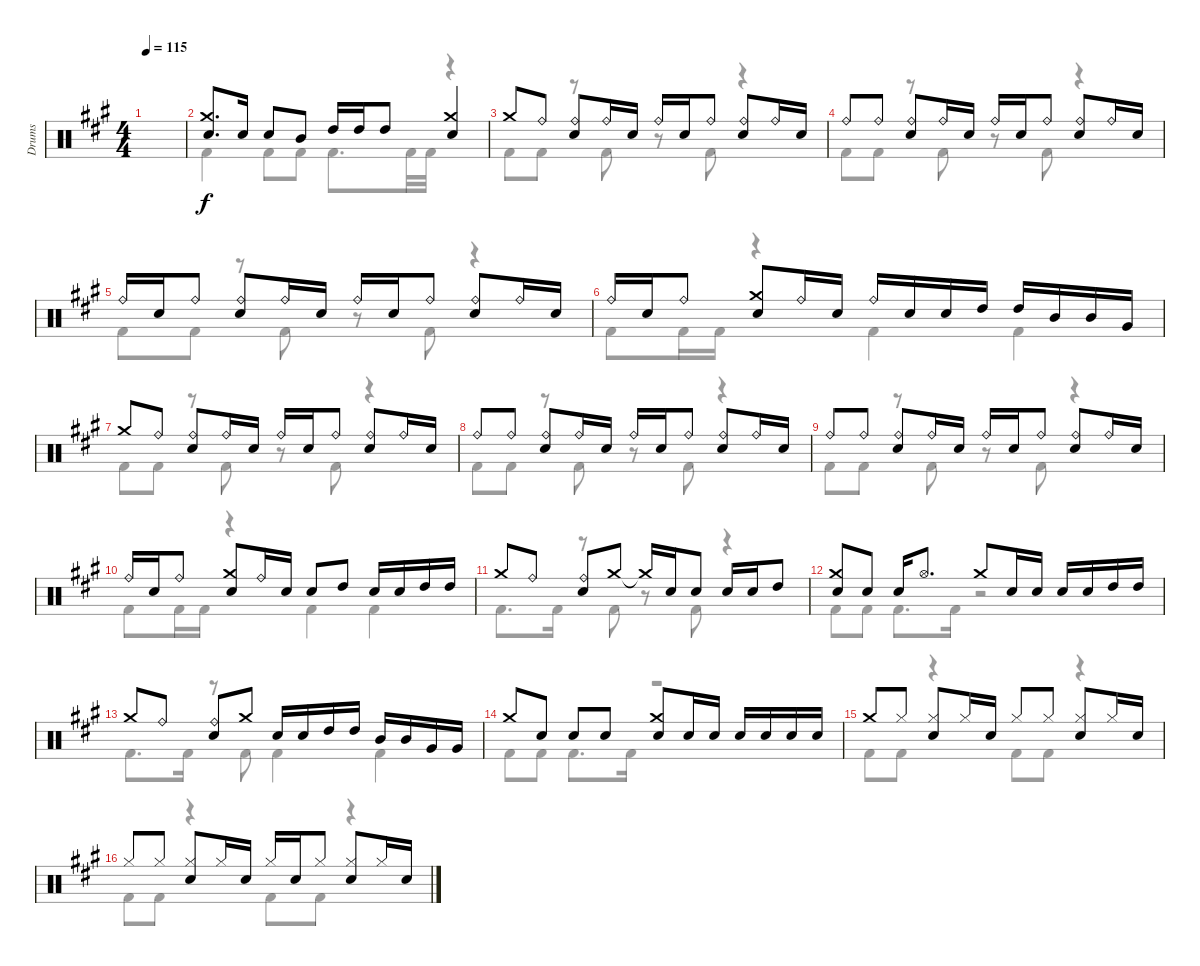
\track ("Drums" "Drums") {instrument percussion}
\staff {score}
\articulation defaults
\voice
\ts (4 4)
\tempo 115
\clef neutral
\ks a
|
("Electric Snare (hit)" "Crash medium (hit)").8{d} "Electric Snare (hit)".16 "Electric Snare (hit)".8 "Mid Tom (hit)".8 "High Tom (hit)".16 "High Tom (hit)".16 "High Tom (hit)".8 ("Crash medium (hit)" "Electric Snare (hit)").4 |
"Crash medium (hit)".8 "Ride (bell)".8 ("Ride (bell)" "Electric Snare (hit)").8 "Ride (bell)".16 "Electric Snare (hit)".16 "Ride (bell)".16 "Electric Snare (hit)".16 "Ride (bell)".8 ("Ride (bell)" "Electric Snare (hit)").8 "Ride (bell)".16 "Electric Snare (hit)".16 |
"Ride (bell)".8 "Ride (bell)".8 ("Ride (bell)" "Electric Snare (hit)").8 "Ride (bell)".16 "Electric Snare (hit)".16 "Ride (bell)".16 "Electric Snare (hit)".16 "Ride (bell)".8 ("Ride (bell)" "Electric Snare (hit)").8 "Ride (bell)".16 "Electric Snare (hit)".16 |
"Ride (bell)".16 "Electric Snare (hit)".16 "Ride (bell)".8 ("Ride (bell)" "Electric Snare (hit)").8 "Ride (bell)".16 "Electric Snare (hit)".16 "Ride (bell)".16 "Electric Snare (hit)".16 "Ride (bell)".8 ("Ride (bell)" "Electric Snare (hit)").8 "Ride (bell)".16 "Electric Snare (hit)".16 |
"Ride (bell)".16 "Electric Snare (hit)".16 "Ride (bell)".8 ("Crash medium (hit)" "Electric Snare (hit)").8 "Ride (bell)".16 "Electric Snare (hit)".16 "Ride (bell)".16 "Electric Snare (hit)".16 "Electric Snare (hit)".16 "High Tom (hit)".16 "High Tom (hit)".16 "Mid Tom (hit)".16 "Mid Tom (hit)".16 "Very Low Tom (hit)".16 |
"Crash medium (hit)".8 "Ride (bell)".8 ("Ride (bell)" "Electric Snare (hit)").8 "Ride (bell)".16 "Electric Snare (hit)".16 "Ride (bell)".16 "Electric Snare (hit)".16 "Ride (bell)".8 ("Ride (bell)" "Electric Snare (hit)").8 "Ride (bell)".16 "Electric Snare (hit)".16 |
"Ride (bell)".8 "Ride (bell)".8 ("Ride (bell)" "Electric Snare (hit)").8 "Ride (bell)".16 "Electric Snare (hit)".16 "Ride (bell)".16 "Electric Snare (hit)".16 "Ride (bell)".8 ("Ride (bell)" "Electric Snare (hit)").8 "Ride (bell)".16 "Electric Snare (hit)".16 |
"Ride (bell)".8 "Ride (bell)".8 ("Ride (bell)" "Electric Snare (hit)").8 "Ride (bell)".16 "Electric Snare (hit)".16 "Ride (bell)".16 "Electric Snare (hit)".16 "Ride (bell)".8 ("Ride (bell)" "Electric Snare (hit)").8 "Ride (bell)".16 "Electric Snare (hit)".16 |
"Ride (bell)".16 "Electric Snare (hit)".16 "Ride (bell)".8 ("Crash medium (hit)" "Electric Snare (hit)").8 "Ride (bell)".16 "Electric Snare (hit)".16 "Electric Snare (hit)".8 "High Tom (hit)".8 "Electric Snare (hit)".16 "Electric Snare (hit)".16 "High Tom (hit)".16 "High Tom (hit)".16 |
"Crash medium (hit)".8 "Ride (bell)".8 ("Ride (bell)" "Electric Snare (hit)").8 "Crash medium (hit)".8 "Crash medium (hit)"{t}.16 "Electric Snare (hit)".16 "Electric Snare (hit)".8 "Electric Snare (hit)".16 "Electric Snare (hit)".16 "High Tom (hit)".8 |
("Crash medium (hit)" "Electric Snare (hit)").8 "Electric Snare (hit)".8 "Electric Snare (hit)".16 "Hi-Hat (open)".8{d} "Crash medium (hit)".8 "Electric Snare (hit)".16 "Electric Snare (hit)".16 "Electric Snare (hit)".16 "Electric Snare (hit)".16 "High Tom (hit)".16 "High Tom (hit)".16 |
"Crash medium (hit)".8 "Ride (bell)".8 ("Ride (bell)" "Electric Snare (hit)").8 "Crash medium (hit)".8 "Electric Snare (hit)".16 "Electric Snare (hit)".16 "High Tom (hit)".16 "High Tom (hit)".16 "Mid Tom (hit)".16 "Mid Tom (hit)".16 "Very Low Tom (hit)".16 "Very Low Tom (hit)".16 |
"Crash medium (hit)".8 "Electric Snare (hit)".8 "Electric Snare (hit)".8 "Electric Snare (hit)".8 ("Electric Snare (hit)" "Crash medium (hit)").8 "Electric Snare (hit)".16 "Electric Snare (hit)".16 "Electric Snare (hit)".16 "Electric Snare (hit)".16 "Electric Snare (hit)".16 "Electric Snare (hit)".16 |
"Crash medium (hit)".8{beam Up} "Hi-Hat (closed)".8{beam Up} ("Hi-Hat (closed)" "Electric Snare (hit)").8{beam Up} "Hi-Hat (closed)".16{beam Up} "Electric Snare (hit)".16{beam Up} "Hi-Hat (closed)".8{beam Up} "Hi-Hat (closed)".8{beam Up} ("Hi-Hat (closed)" "Electric Snare (hit)").8{beam Up} "Hi-Hat (closed)".16{beam Up} "Electric Snare (hit)".16{beam Up} |
"Hi-Hat (closed)".8{beam Up} "Hi-Hat (closed)".8{beam Up} ("Hi-Hat (closed)" "Electric Snare (hit)").8{beam Up} "Hi-Hat (closed)".16{beam Up} "Electric Snare (hit)".16{beam Up} "Hi-Hat (closed)".16{beam Up} "Electric Snare (hit)".16{beam Up} "Hi-Hat (closed)".8{beam Up} ("Hi-Hat (closed)" "Electric Snare (hit)").8{beam Up} "Hi-Hat (closed)".16{beam Up} "Electric Snare (hit)".16{beam Up}
\voice
\clef neutral
\ottava regular
\simile none
\ks a
|
"Kick (hit) 2".4 "Kick (hit) 2".8 "Kick (hit) 2".8 "Kick (hit) 2".8{d} "Kick (hit) 2".32 "Kick (hit) 2".32 r.4 |
"Kick (hit) 2".8 "Kick (hit) 2".8 r.8 "Kick (hit) 2".8 r.8 "Kick (hit) 2".8 r.4 |
"Kick (hit) 2".8 "Kick (hit) 2".8 r.8 "Kick (hit) 2".8 r.8 "Kick (hit) 2".8 r.4 |
"Kick (hit) 2".8 "Kick (hit) 2".8 r.8 "Kick (hit) 2".8 r.8 "Kick (hit) 2".8 r.4 |
"Kick (hit) 2".8 "Kick (hit) 2".16 "Kick (hit) 2".16 r.4 "Kick (hit) 2".4 "Kick (hit) 2".4 |
"Kick (hit) 2".8 "Kick (hit) 2".8 r.8 "Kick (hit) 2".8 r.8 "Kick (hit) 2".8 r.4 |
"Kick (hit) 2".8 "Kick (hit) 2".8 r.8 "Kick (hit) 2".8 r.8 "Kick (hit) 2".8 r.4 |
"Kick (hit) 2".8 "Kick (hit) 2".8 r.8 "Kick (hit) 2".8 r.8 "Kick (hit) 2".8 r.4 |
"Kick (hit) 2".8 "Kick (hit) 2".16 "Kick (hit) 2".16 r.4 "Kick (hit) 2".4 "Kick (hit) 2".4 |
"Kick (hit) 2".8{d} "Kick (hit) 2".16 r.8 "Kick (hit) 2".8 r.8 "Kick (hit) 2".8 r.4 |
"Kick (hit) 2".8 "Kick (hit) 2".8 "Kick (hit) 2".8{d} "Kick (hit) 2".16 r.2 |
"Kick (hit) 2".8{d} "Kick (hit) 2".16 r.8 "Kick (hit) 2".8 "Kick (hit) 2".4 "Kick (hit) 2".4 |
"Kick (hit) 2".8 "Kick (hit) 2".8 "Kick (hit) 2".8{d} "Kick (hit) 2".16 r.2 |
"Kick (hit) 2".8 "Kick (hit) 2".8 r.4 "Kick (hit) 2".8 "Kick (hit) 2".8 r.4 |
"Kick (hit) 2".8 "Kick (hit) 2".8 r.4 "Kick (hit) 2".8 "Kick (hit) 2".8 r.4
